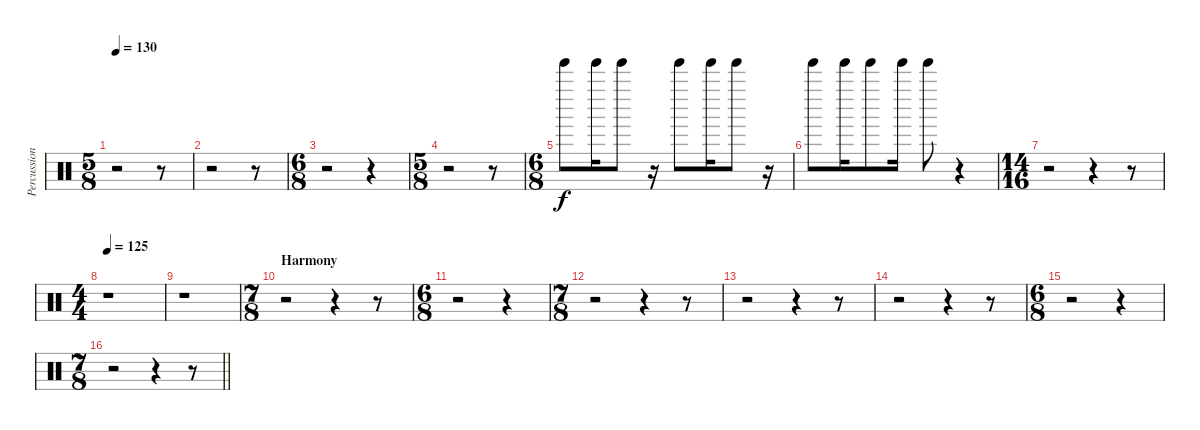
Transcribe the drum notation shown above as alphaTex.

\track ("Percussion Overdubs" "Percussion") {instrument percussion}
\staff {score}
\articulation defaults
\ts (5 8)
\tempo 130
\clef neutral
\ks c
r.2{dy p} r.8 |
r.2 r.8 |
\ts (6 8)
r.2 r.4 |
\ts (5 8)
r.2 r.8 |
\ts (6 8)
"Tinkle Bell (hit)".8{dy f} "Tinkle Bell (hit)".16 "Tinkle Bell (hit)".8 r.16 "Tinkle Bell (hit)".8 "Tinkle Bell (hit)".16 "Tinkle Bell (hit)".8 r.16 |
"Tinkle Bell (hit)".8 "Tinkle Bell (hit)".16 "Tinkle Bell (hit)".8 "Tinkle Bell (hit)".16 "Tinkle Bell (hit)".8 r.4 |
\ts (14 16)
r.2 r.4 r.8 |
\ts (4 4)
\tempo 125
r.1 |
r.1 |
\ts (7 8)
\section ("" "Harmony")
r.2 r.4 r.8 |
\ts (6 8)
r.2 r.4 |
\ts (7 8)
r.2 r.4 r.8 |
r.2 r.4 r.8 |
r.2 r.4 r.8 |
\ts (6 8)
r.2 r.4 |
\ts (7 8)
\barLineRight lightlight
r.2 r.4 r.8
